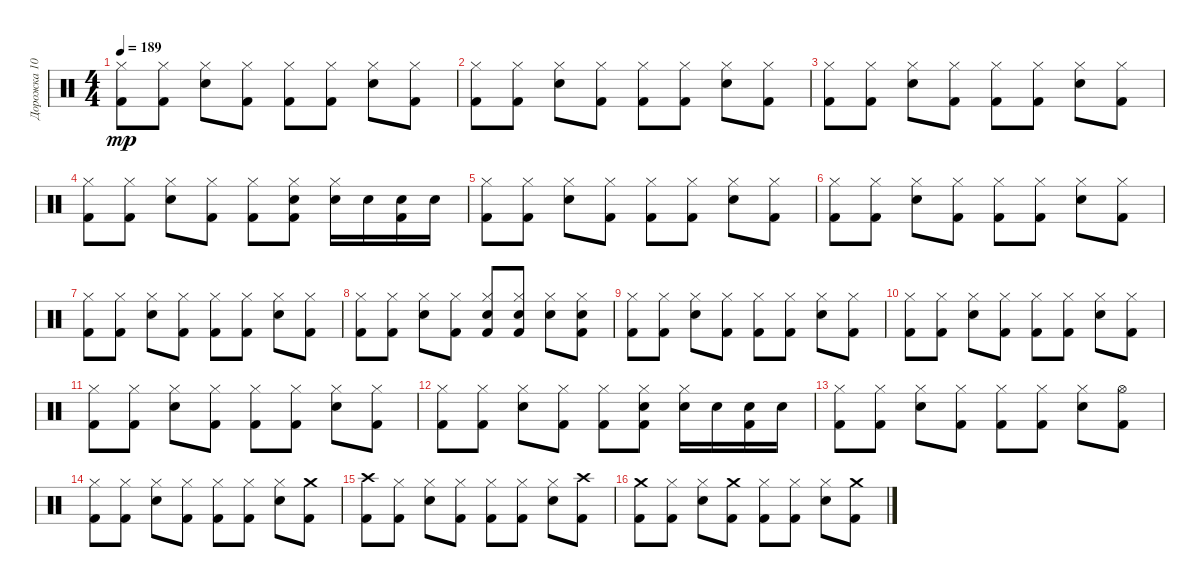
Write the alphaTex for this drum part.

\track ("Дорожка 10" "Дорожка 10") {instrument percussion}
\staff {score}
\articulation defaults
\ts (4 4)
\tempo 189
\clef neutral
\ks c
("Kick (hit) 2" "Hi-Hat (closed)").8{dy mp} ("Kick (hit) 2" "Hi-Hat (closed)").8 ("Snare (hit) 2" "Hi-Hat (closed)").8 ("Kick (hit) 2" "Hi-Hat (closed)").8 ("Kick (hit) 2" "Hi-Hat (closed)").8 ("Kick (hit) 2" "Hi-Hat (closed)").8 ("Snare (hit) 2" "Hi-Hat (closed)").8 ("Kick (hit) 2" "Hi-Hat (closed)").8 |
("Kick (hit) 2" "Hi-Hat (closed)").8 ("Kick (hit) 2" "Hi-Hat (closed)").8 ("Snare (hit) 2" "Hi-Hat (closed)").8 ("Kick (hit) 2" "Hi-Hat (closed)").8 ("Kick (hit) 2" "Hi-Hat (closed)").8 ("Kick (hit) 2" "Hi-Hat (closed)").8 ("Snare (hit) 2" "Hi-Hat (closed)").8 ("Kick (hit) 2" "Hi-Hat (closed)").8 |
("Kick (hit) 2" "Hi-Hat (closed)").8 ("Kick (hit) 2" "Hi-Hat (closed)").8 ("Snare (hit) 2" "Hi-Hat (closed)").8 ("Kick (hit) 2" "Hi-Hat (closed)").8 ("Kick (hit) 2" "Hi-Hat (closed)").8 ("Kick (hit) 2" "Hi-Hat (closed)").8 ("Snare (hit) 2" "Hi-Hat (closed)").8 ("Kick (hit) 2" "Hi-Hat (closed)").8 |
("Kick (hit) 2" "Hi-Hat (closed)").8 ("Kick (hit) 2" "Hi-Hat (closed)").8 ("Snare (hit) 2" "Hi-Hat (closed)").8 ("Kick (hit) 2" "Hi-Hat (closed)").8 ("Kick (hit) 2" "Hi-Hat (closed)").8 ("Kick (hit) 2" "Snare (hit) 2" "Hi-Hat (closed)").8 ("Snare (hit) 2" "Hi-Hat (closed)").16 "Snare (hit) 2".16 ("Kick (hit) 2" "Snare (hit) 2").16 "Snare (hit) 2".16 |
("Kick (hit) 2" "Hi-Hat (closed)").8 ("Kick (hit) 2" "Hi-Hat (closed)").8 ("Snare (hit) 2" "Hi-Hat (closed)").8 ("Kick (hit) 2" "Hi-Hat (closed)").8 ("Kick (hit) 2" "Hi-Hat (closed)").8 ("Kick (hit) 2" "Hi-Hat (closed)").8 ("Snare (hit) 2" "Hi-Hat (closed)").8 ("Kick (hit) 2" "Hi-Hat (closed)").8 |
("Kick (hit) 2" "Hi-Hat (closed)").8 ("Kick (hit) 2" "Hi-Hat (closed)").8 ("Snare (hit) 2" "Hi-Hat (closed)").8 ("Kick (hit) 2" "Hi-Hat (closed)").8 ("Kick (hit) 2" "Hi-Hat (closed)").8 ("Kick (hit) 2" "Hi-Hat (closed)").8 ("Snare (hit) 2" "Hi-Hat (closed)").8 ("Kick (hit) 2" "Hi-Hat (closed)").8 |
("Kick (hit) 2" "Hi-Hat (closed)").8 ("Kick (hit) 2" "Hi-Hat (closed)").8 ("Snare (hit) 2" "Hi-Hat (closed)").8 ("Kick (hit) 2" "Hi-Hat (closed)").8 ("Kick (hit) 2" "Hi-Hat (closed)").8 ("Kick (hit) 2" "Hi-Hat (closed)").8 ("Snare (hit) 2" "Hi-Hat (closed)").8 ("Kick (hit) 2" "Hi-Hat (closed)").8 |
("Kick (hit) 2" "Hi-Hat (closed)").8 ("Kick (hit) 2" "Hi-Hat (closed)").8 ("Snare (hit) 2" "Hi-Hat (closed)").8 ("Kick (hit) 2" "Hi-Hat (closed)").8 ("Kick (hit) 2" "Snare (hit) 2" "Hi-Hat (closed)").8 ("Kick (hit) 2" "Snare (hit) 2" "Hi-Hat (closed)").8 ("Snare (hit) 2" "Hi-Hat (closed)").8 ("Kick (hit) 2" "Snare (hit) 2" "Hi-Hat (closed)").8 |
("Kick (hit) 2" "Hi-Hat (closed)").8 ("Kick (hit) 2" "Hi-Hat (closed)").8 ("Snare (hit) 2" "Hi-Hat (closed)").8 ("Kick (hit) 2" "Hi-Hat (closed)").8 ("Kick (hit) 2" "Hi-Hat (closed)").8 ("Kick (hit) 2" "Hi-Hat (closed)").8 ("Snare (hit) 2" "Hi-Hat (closed)").8 ("Kick (hit) 2" "Hi-Hat (closed)").8 |
("Kick (hit) 2" "Hi-Hat (closed)").8 ("Kick (hit) 2" "Hi-Hat (closed)").8 ("Snare (hit) 2" "Hi-Hat (closed)").8 ("Kick (hit) 2" "Hi-Hat (closed)").8 ("Kick (hit) 2" "Hi-Hat (closed)").8 ("Kick (hit) 2" "Hi-Hat (closed)").8 ("Snare (hit) 2" "Hi-Hat (closed)").8 ("Kick (hit) 2" "Hi-Hat (closed)").8 |
("Kick (hit) 2" "Hi-Hat (closed)").8 ("Kick (hit) 2" "Hi-Hat (closed)").8 ("Snare (hit) 2" "Hi-Hat (closed)").8 ("Kick (hit) 2" "Hi-Hat (closed)").8 ("Kick (hit) 2" "Hi-Hat (closed)").8 ("Kick (hit) 2" "Hi-Hat (closed)").8 ("Snare (hit) 2" "Hi-Hat (closed)").8 ("Kick (hit) 2" "Hi-Hat (closed)").8 |
("Kick (hit) 2" "Hi-Hat (closed)").8 ("Kick (hit) 2" "Hi-Hat (closed)").8 ("Snare (hit) 2" "Hi-Hat (closed)").8 ("Kick (hit) 2" "Hi-Hat (closed)").8 ("Kick (hit) 2" "Hi-Hat (closed)").8 ("Kick (hit) 2" "Snare (hit) 2" "Hi-Hat (closed)").8 ("Snare (hit) 2" "Hi-Hat (closed)").16 "Snare (hit) 2".16 ("Kick (hit) 2" "Snare (hit) 2").16 "Snare (hit) 2".16 |
("Kick (hit) 2" "Hi-Hat (closed)").8 ("Kick (hit) 2" "Hi-Hat (closed)").8 ("Snare (hit) 2" "Hi-Hat (closed)").8 ("Kick (hit) 2" "Hi-Hat (closed)").8 ("Kick (hit) 2" "Hi-Hat (closed)").8 ("Kick (hit) 2" "Hi-Hat (closed)").8 ("Snare (hit) 2" "Hi-Hat (closed)").8 ("Kick (hit) 2" "Hi-Hat (open)").8 |
("Kick (hit) 2" "Hi-Hat (closed)").8 ("Kick (hit) 2" "Hi-Hat (closed)").8 ("Snare (hit) 2" "Hi-Hat (closed)").8 ("Kick (hit) 2" "Hi-Hat (closed)").8 ("Kick (hit) 2" "Hi-Hat (closed)").8 ("Kick (hit) 2" "Hi-Hat (closed)").8 ("Snare (hit) 2" "Hi-Hat (closed)").8 ("Kick (hit) 2" "Crash medium (hit)").8 |
("Kick (hit) 2" "Crash high (hit)").8 ("Kick (hit) 2" "Hi-Hat (closed)").8 ("Snare (hit) 2" "Hi-Hat (closed)").8 ("Kick (hit) 2" "Hi-Hat (closed)").8 ("Kick (hit) 2" "Hi-Hat (closed)").8 ("Kick (hit) 2" "Hi-Hat (closed)").8 ("Snare (hit) 2" "Hi-Hat (closed)").8 ("Kick (hit) 2" "Crash high (hit)").8 |
("Kick (hit) 2" "Crash medium (hit)").8 ("Kick (hit) 2" "Hi-Hat (closed)").8 ("Snare (hit) 2" "Hi-Hat (closed)").8 ("Kick (hit) 2" "Crash medium (hit)").8 ("Kick (hit) 2" "Hi-Hat (closed)").8 ("Kick (hit) 2" "Hi-Hat (closed)").8 ("Snare (hit) 2" "Hi-Hat (closed)").8 ("Kick (hit) 2" "Crash medium (hit)").8
